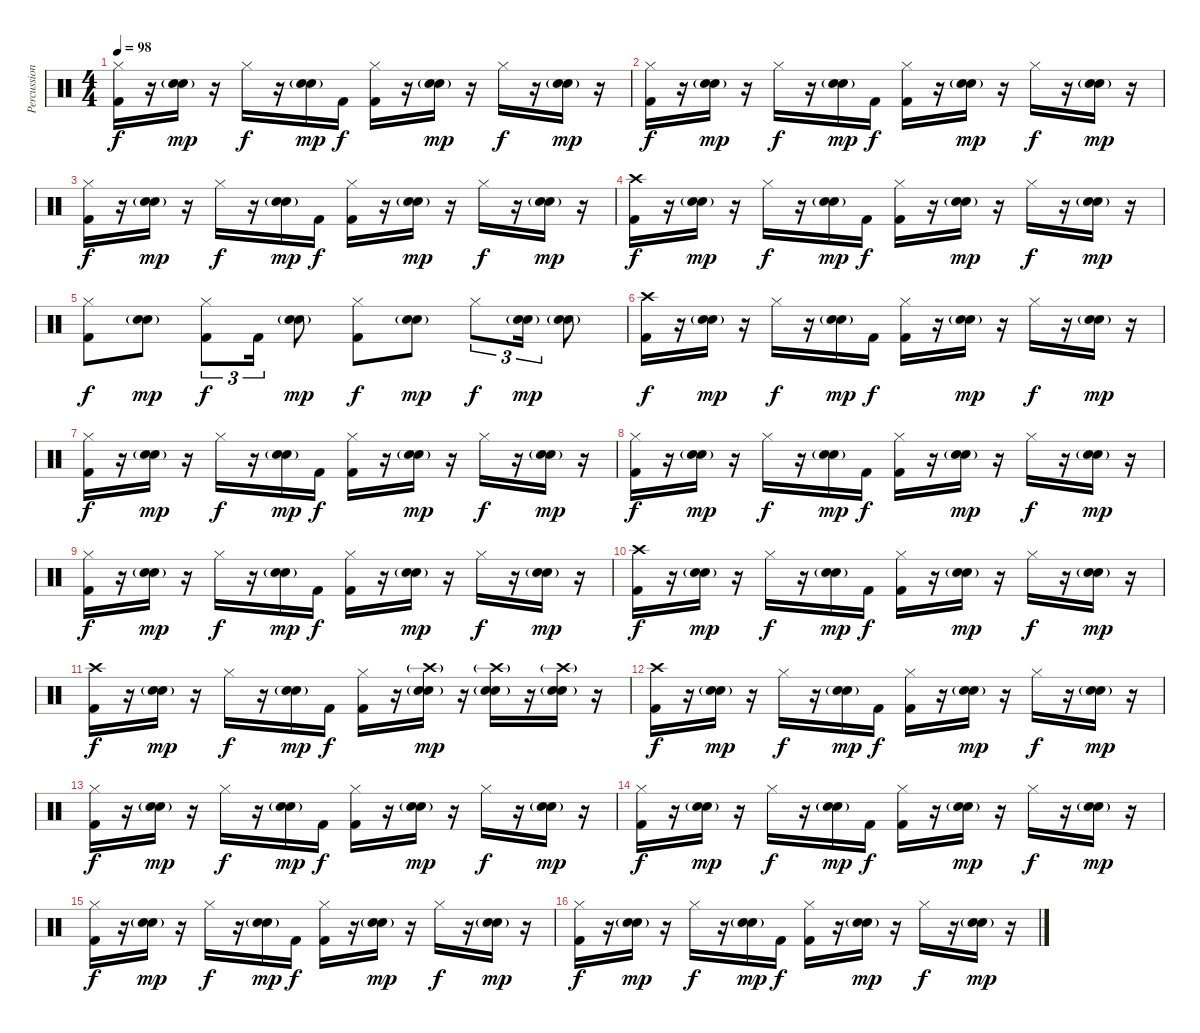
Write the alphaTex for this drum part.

\track ("Percussion" "Percussion") {instrument percussion}
\staff {score}
\articulation defaults
\ts (4 4)
\tempo 98
\clef neutral
\ks c
("Hi-Hat (closed)" "Kick (hit) 2").16{dy f} r.16 ("Snare (hit) 2" "Electric Snare (hit)"{g}).16{dy mp} r.16 "Hi-Hat (closed)".16{dy f} r.16 ("Snare (hit) 2" "Electric Snare (hit)"{g}).16{dy mp} "Kick (hit) 2".16{dy f} ("Hi-Hat (closed)" "Kick (hit) 2").16 r.16 ("Snare (hit) 2" "Electric Snare (hit)"{g}).16{dy mp} r.16 "Hi-Hat (closed)".16{dy f} r.16 ("Snare (hit) 2" "Electric Snare (hit)"{g}).16{dy mp} r.16 |
("Hi-Hat (closed)" "Kick (hit) 2").16{dy f} r.16 ("Snare (hit) 2" "Electric Snare (hit)"{g}).16{dy mp} r.16 "Hi-Hat (closed)".16{dy f} r.16 ("Snare (hit) 2" "Electric Snare (hit)"{g}).16{dy mp} "Kick (hit) 2".16{dy f} ("Hi-Hat (closed)" "Kick (hit) 2").16 r.16 ("Snare (hit) 2" "Electric Snare (hit)"{g}).16{dy mp} r.16 "Hi-Hat (closed)".16{dy f} r.16 ("Snare (hit) 2" "Electric Snare (hit)"{g}).16{dy mp} r.16 |
("Hi-Hat (closed)" "Kick (hit) 2").16{dy f} r.16 ("Snare (hit) 2" "Electric Snare (hit)"{g}).16{dy mp} r.16 "Hi-Hat (closed)".16{dy f} r.16 ("Snare (hit) 2" "Electric Snare (hit)"{g}).16{dy mp} "Kick (hit) 2".16{dy f} ("Hi-Hat (closed)" "Kick (hit) 2").16 r.16 ("Snare (hit) 2" "Electric Snare (hit)"{g}).16{dy mp} r.16 "Hi-Hat (closed)".16{dy f} r.16 ("Snare (hit) 2" "Electric Snare (hit)"{g}).16{dy mp} r.16 |
("Crash high (hit)" "Kick (hit) 2").16{dy f} r.16 ("Snare (hit) 2" "Electric Snare (hit)"{g}).16{dy mp} r.16 "Hi-Hat (closed)".16{dy f} r.16 ("Snare (hit) 2" "Electric Snare (hit)"{g}).16{dy mp} "Kick (hit) 2".16{dy f} ("Hi-Hat (closed)" "Kick (hit) 2").16 r.16 ("Snare (hit) 2" "Electric Snare (hit)"{g}).16{dy mp} r.16 "Hi-Hat (closed)".16{dy f} r.16 ("Snare (hit) 2" "Electric Snare (hit)"{g}).16{dy mp} r.16 |
("Hi-Hat (closed)" "Kick (hit) 2").8{dy f} ("Snare (hit) 2" "Electric Snare (hit)"{g}).8{dy mp} ("Hi-Hat (closed)" "Kick (hit) 2").8{tu (3 2) dy f} "Kick (hit) 2".16{tu (3 2)} ("Snare (hit) 2" "Electric Snare (hit)"{g}).8{dy mp} ("Hi-Hat (closed)" "Kick (hit) 2").8{dy f} ("Snare (hit) 2" "Electric Snare (hit)"{g}).8{dy mp} "Hi-Hat (closed)".8{tu (3 2) dy f} ("Snare (hit) 2" "Electric Snare (hit)"{g}).16{tu (3 2) dy mp} ("Snare (hit) 2" "Electric Snare (hit)"{g}).8 |
("Crash high (hit)" "Kick (hit) 2").16{dy f} r.16 ("Snare (hit) 2" "Electric Snare (hit)"{g}).16{dy mp} r.16 "Hi-Hat (closed)".16{dy f} r.16 ("Snare (hit) 2" "Electric Snare (hit)"{g}).16{dy mp} "Kick (hit) 2".16{dy f} ("Hi-Hat (closed)" "Kick (hit) 2").16 r.16 ("Snare (hit) 2" "Electric Snare (hit)"{g}).16{dy mp} r.16 "Hi-Hat (closed)".16{dy f} r.16 ("Snare (hit) 2" "Electric Snare (hit)"{g}).16{dy mp} r.16 |
("Hi-Hat (closed)" "Kick (hit) 2").16{dy f} r.16 ("Snare (hit) 2" "Electric Snare (hit)"{g}).16{dy mp} r.16 "Hi-Hat (closed)".16{dy f} r.16 ("Snare (hit) 2" "Electric Snare (hit)"{g}).16{dy mp} "Kick (hit) 2".16{dy f} ("Hi-Hat (closed)" "Kick (hit) 2").16 r.16 ("Snare (hit) 2" "Electric Snare (hit)"{g}).16{dy mp} r.16 "Hi-Hat (closed)".16{dy f} r.16 ("Snare (hit) 2" "Electric Snare (hit)"{g}).16{dy mp} r.16 |
("Hi-Hat (closed)" "Kick (hit) 2").16{dy f} r.16 ("Snare (hit) 2" "Electric Snare (hit)"{g}).16{dy mp} r.16 "Hi-Hat (closed)".16{dy f} r.16 ("Snare (hit) 2" "Electric Snare (hit)"{g}).16{dy mp} "Kick (hit) 2".16{dy f} ("Hi-Hat (closed)" "Kick (hit) 2").16 r.16 ("Snare (hit) 2" "Electric Snare (hit)"{g}).16{dy mp} r.16 "Hi-Hat (closed)".16{dy f} r.16 ("Snare (hit) 2" "Electric Snare (hit)"{g}).16{dy mp} r.16 |
("Hi-Hat (closed)" "Kick (hit) 2").16{dy f} r.16 ("Snare (hit) 2" "Electric Snare (hit)"{g}).16{dy mp} r.16 "Hi-Hat (closed)".16{dy f} r.16 ("Snare (hit) 2" "Electric Snare (hit)"{g}).16{dy mp} "Kick (hit) 2".16{dy f} ("Hi-Hat (closed)" "Kick (hit) 2").16 r.16 ("Snare (hit) 2" "Electric Snare (hit)"{g}).16{dy mp} r.16 "Hi-Hat (closed)".16{dy f} r.16 ("Snare (hit) 2" "Electric Snare (hit)"{g}).16{dy mp} r.16 |
("Crash high (hit)" "Kick (hit) 2").16{dy f} r.16 ("Snare (hit) 2" "Electric Snare (hit)"{g}).16{dy mp} r.16 "Hi-Hat (closed)".16{dy f} r.16 ("Snare (hit) 2" "Electric Snare (hit)"{g}).16{dy mp} "Kick (hit) 2".16{dy f} ("Hi-Hat (closed)" "Kick (hit) 2").16 r.16 ("Snare (hit) 2" "Electric Snare (hit)"{g}).16{dy mp} r.16 "Hi-Hat (closed)".16{dy f} r.16 ("Snare (hit) 2" "Electric Snare (hit)"{g}).16{dy mp} r.16 |
("Crash high (hit)" "Kick (hit) 2").16{dy f} r.16 ("Snare (hit) 2" "Electric Snare (hit)"{g}).16{dy mp} r.16 "Hi-Hat (closed)".16{dy f} r.16 ("Snare (hit) 2" "Electric Snare (hit)"{g}).16{dy mp} "Kick (hit) 2".16{dy f} ("Hi-Hat (closed)" "Kick (hit) 2").16 r.16 ("Snare (hit) 2" "Crash high (hit)"{g} "Electric Snare (hit)"{g}).16{dy mp} r.16 ("Snare (hit) 2" "Crash high (hit)"{g} "Electric Snare (hit)"{g}).16 r.16 ("Snare (hit) 2" "Crash high (hit)"{g} "Electric Snare (hit)"{g}).16 r.16 |
("Crash high (hit)" "Kick (hit) 2").16{dy f} r.16 ("Snare (hit) 2" "Electric Snare (hit)"{g}).16{dy mp} r.16 "Hi-Hat (closed)".16{dy f} r.16 ("Snare (hit) 2" "Electric Snare (hit)"{g}).16{dy mp} "Kick (hit) 2".16{dy f} ("Hi-Hat (closed)" "Kick (hit) 2").16 r.16 ("Snare (hit) 2" "Electric Snare (hit)"{g}).16{dy mp} r.16 "Hi-Hat (closed)".16{dy f} r.16 ("Snare (hit) 2" "Electric Snare (hit)"{g}).16{dy mp} r.16 |
("Hi-Hat (closed)" "Kick (hit) 2").16{dy f} r.16 ("Snare (hit) 2" "Electric Snare (hit)"{g}).16{dy mp} r.16 "Hi-Hat (closed)".16{dy f} r.16 ("Snare (hit) 2" "Electric Snare (hit)"{g}).16{dy mp} "Kick (hit) 2".16{dy f} ("Hi-Hat (closed)" "Kick (hit) 2").16 r.16 ("Snare (hit) 2" "Electric Snare (hit)"{g}).16{dy mp} r.16 "Hi-Hat (closed)".16{dy f} r.16 ("Snare (hit) 2" "Electric Snare (hit)"{g}).16{dy mp} r.16 |
("Hi-Hat (closed)" "Kick (hit) 2").16{dy f} r.16 ("Snare (hit) 2" "Electric Snare (hit)"{g}).16{dy mp} r.16 "Hi-Hat (closed)".16{dy f} r.16 ("Snare (hit) 2" "Electric Snare (hit)"{g}).16{dy mp} "Kick (hit) 2".16{dy f} ("Hi-Hat (closed)" "Kick (hit) 2").16 r.16 ("Snare (hit) 2" "Electric Snare (hit)"{g}).16{dy mp} r.16 "Hi-Hat (closed)".16{dy f} r.16 ("Snare (hit) 2" "Electric Snare (hit)"{g}).16{dy mp} r.16 |
("Hi-Hat (closed)" "Kick (hit) 2").16{dy f} r.16 ("Snare (hit) 2" "Electric Snare (hit)"{g}).16{dy mp} r.16 "Hi-Hat (closed)".16{dy f} r.16 ("Snare (hit) 2" "Electric Snare (hit)"{g}).16{dy mp} "Kick (hit) 2".16{dy f} ("Hi-Hat (closed)" "Kick (hit) 2").16 r.16 ("Snare (hit) 2" "Electric Snare (hit)"{g}).16{dy mp} r.16 "Hi-Hat (closed)".16{dy f} r.16 ("Snare (hit) 2" "Electric Snare (hit)"{g}).16{dy mp} r.16 |
("Hi-Hat (closed)" "Kick (hit) 2").16{dy f} r.16 ("Snare (hit) 2" "Electric Snare (hit)"{g}).16{dy mp} r.16 "Hi-Hat (closed)".16{dy f} r.16 ("Snare (hit) 2" "Electric Snare (hit)"{g}).16{dy mp} "Kick (hit) 2".16{dy f} ("Hi-Hat (closed)" "Kick (hit) 2").16 r.16 ("Snare (hit) 2" "Electric Snare (hit)"{g}).16{dy mp} r.16 "Hi-Hat (closed)".16{dy f} r.16 ("Snare (hit) 2" "Electric Snare (hit)"{g}).16{dy mp} r.16
